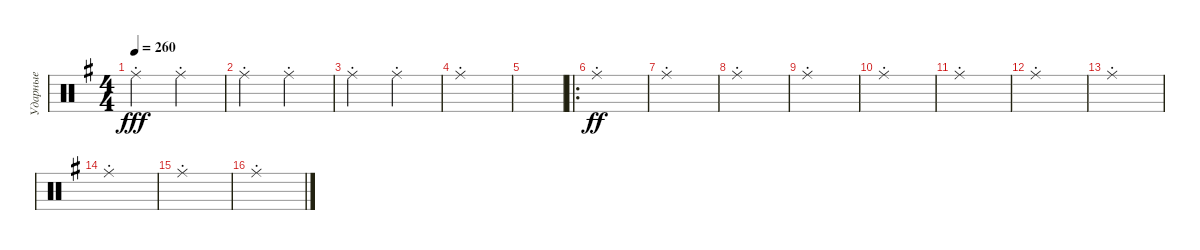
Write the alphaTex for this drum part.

\track ("Ударные" "Ударные") {instrument percussion}
\staff {score}
\articulation defaults
\ts (4 4)
\tempo 260
\clef neutral
\ks g "Ride (middle)"{st}.2{dy fff} "Ride (middle)"{st}.2
|
"Ride (middle)"{st}.2 "Ride (middle)"{st}.2 |
"Ride (middle)"{st}.2 "Ride (middle)"{st}.2 |
"Ride (middle)"{st}.1 |
|
\ro "Ride (middle)"{st}.1{dy ff}
|
"Ride (middle)"{st}.1 |
"Ride (middle)"{st}.1 |
"Ride (middle)"{st}.1 |
"Ride (middle)"{st}.1 |
"Ride (middle)"{st}.1 |
"Ride (middle)"{st}.1 |
"Ride (middle)"{st}.1 |
"Ride (middle)"{st}.1 |
"Ride (middle)"{st}.1 |
"Ride (middle)"{st}.1
